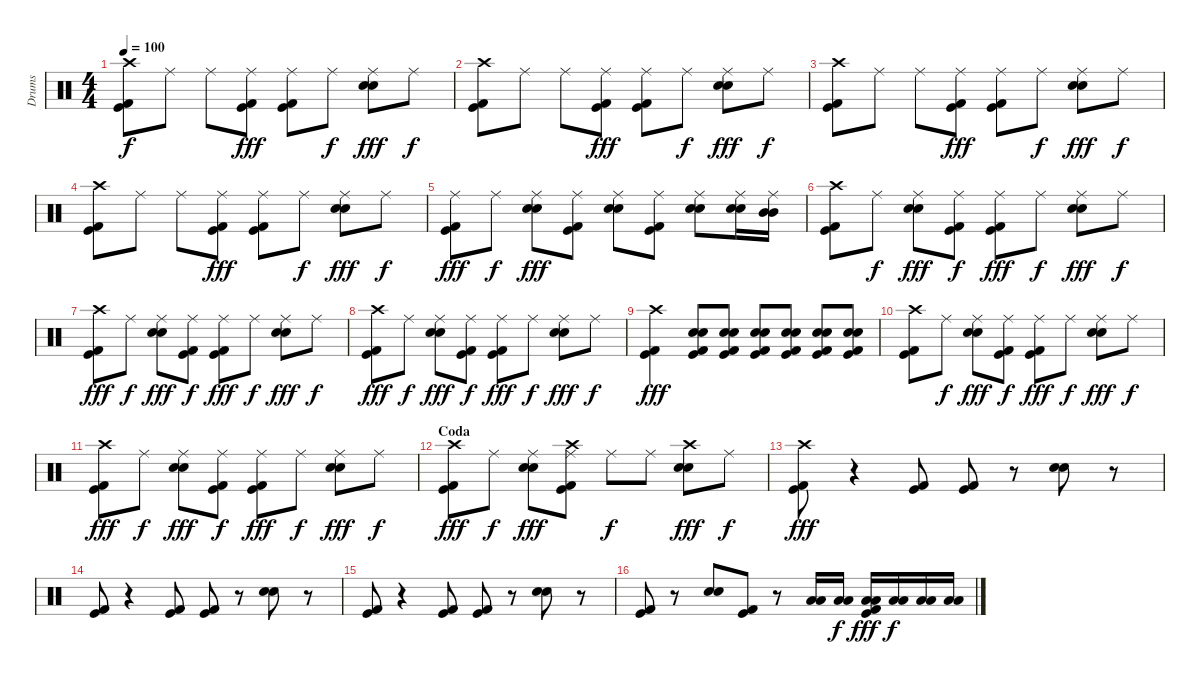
\track ("Drums" "Drums") {instrument percussion}
\staff {score}
\articulation defaults
\ts (4 4)
\tempo 100
\clef neutral
\ks c
("Crash high (hit)" "Kick (hit) 2" "Kick (hit)").8{dy f} "Ride (middle)".8 "Ride (middle)".8 ("Ride (middle)" "Kick (hit) 2" "Kick (hit)").8{dy fff} ("Ride (middle)" "Kick (hit) 2" "Kick (hit)").8 "Ride (middle)".8{dy f} ("Ride (middle)" "Electric Snare (hit)" "Snare (hit) 2").8{dy fff} "Ride (middle)".8{dy f} |
("Crash high (hit)" "Kick (hit) 2" "Kick (hit)").8 "Ride (middle)".8 "Ride (middle)".8 ("Ride (middle)" "Kick (hit) 2" "Kick (hit)").8{dy fff} ("Ride (middle)" "Kick (hit) 2" "Kick (hit)").8 "Ride (middle)".8{dy f} ("Ride (middle)" "Electric Snare (hit)" "Snare (hit) 2").8{dy fff} "Ride (middle)".8{dy f} |
("Crash high (hit)" "Kick (hit) 2" "Kick (hit)").8 "Ride (middle)".8 "Ride (middle)".8 ("Ride (middle)" "Kick (hit) 2" "Kick (hit)").8{dy fff} ("Ride (middle)" "Kick (hit) 2" "Kick (hit)").8 "Ride (middle)".8{dy f} ("Ride (middle)" "Electric Snare (hit)" "Snare (hit) 2").8{dy fff} "Ride (middle)".8{dy f} |
("Crash high (hit)" "Kick (hit) 2" "Kick (hit)").8 "Ride (middle)".8 "Ride (middle)".8 ("Ride (middle)" "Kick (hit) 2" "Kick (hit)").8{dy fff} ("Ride (middle)" "Kick (hit) 2" "Kick (hit)").8 "Ride (middle)".8{dy f} ("Ride (middle)" "Electric Snare (hit)" "Snare (hit) 2").8{dy fff} "Ride (middle)".8{dy f} |
("Ride (middle)" "Kick (hit) 2" "Kick (hit)").8{dy fff} "Ride (middle)".8{dy f} ("Ride (middle)" "Electric Snare (hit)" "Snare (hit) 2").8{dy fff} ("Ride (middle)" "Kick (hit) 2" "Kick (hit)").8 ("Ride (middle)" "Electric Snare (hit)" "Electric Snare (hit)").8 ("Ride (middle)" "Kick (hit) 2" "Kick (hit)").8 ("Ride (middle)" "Electric Snare (hit)" "Snare (hit) 2").8 ("Ride (middle)" "Electric Snare (hit)" "Snare (hit) 2").16 ("Ride (middle)" "Mid Tom (hit)" "Mid Tom (hit)").16 |
("Crash high (hit)" "Kick (hit) 2" "Kick (hit)").8 "Ride (middle)".8{dy f} ("Ride (middle)" "Electric Snare (hit)" "Snare (hit) 2").8{dy fff} ("Ride (middle)" "Kick (hit) 2" "Kick (hit)").8{dy f} ("Ride (middle)" "Kick (hit) 2" "Kick (hit)").8{dy fff} "Ride (middle)".8{dy f} ("Ride (middle)" "Electric Snare (hit)" "Snare (hit) 2").8{dy fff} "Ride (middle)".8{dy f} |
("Crash high (hit)" "Kick (hit) 2" "Kick (hit)").8{dy fff} "Ride (middle)".8{dy f} ("Ride (middle)" "Electric Snare (hit)" "Snare (hit) 2").8{dy fff} ("Ride (middle)" "Kick (hit) 2" "Kick (hit)").8{dy f} ("Ride (middle)" "Kick (hit) 2" "Kick (hit)").8{dy fff} "Ride (middle)".8{dy f} ("Ride (middle)" "Electric Snare (hit)" "Snare (hit) 2").8{dy fff} "Ride (middle)".8{dy f} |
("Crash high (hit)" "Kick (hit) 2" "Kick (hit)").8{dy fff} "Ride (middle)".8{dy f} ("Ride (middle)" "Electric Snare (hit)" "Snare (hit) 2").8{dy fff} ("Ride (middle)" "Kick (hit) 2" "Kick (hit)").8{dy f} ("Ride (middle)" "Kick (hit) 2" "Kick (hit)").8{dy fff} "Ride (middle)".8{dy f} ("Ride (middle)" "Electric Snare (hit)" "Snare (hit) 2").8{dy fff} "Ride (middle)".8{dy f} |
("Crash high (hit)" "Kick (hit) 2" "Kick (hit)").4{dy fff} ("Electric Snare (hit)" "Snare (hit) 2" "Kick (hit) 2" "Kick (hit)").8 ("Electric Snare (hit)" "Snare (hit) 2" "Kick (hit) 2" "Kick (hit)").8 ("Electric Snare (hit)" "Snare (hit) 2" "Kick (hit) 2" "Kick (hit)").8 ("Electric Snare (hit)" "Snare (hit) 2" "Kick (hit) 2" "Kick (hit)").8 ("Electric Snare (hit)" "Snare (hit) 2" "Kick (hit) 2" "Kick (hit)").8 ("Electric Snare (hit)" "Snare (hit) 2" "Kick (hit) 2" "Kick (hit)").8 |
("Crash high (hit)" "Kick (hit) 2" "Kick (hit)").8 "Ride (middle)".8{dy f} ("Ride (middle)" "Electric Snare (hit)" "Snare (hit) 2").8{dy fff} ("Ride (middle)" "Kick (hit) 2" "Kick (hit)").8{dy f} ("Ride (middle)" "Kick (hit) 2" "Kick (hit)").8{dy fff} "Ride (middle)".8{dy f} ("Ride (middle)" "Electric Snare (hit)" "Snare (hit) 2").8{dy fff} "Ride (middle)".8{dy f} |
("Crash high (hit)" "Kick (hit) 2" "Kick (hit)").8{dy fff} "Ride (middle)".8{dy f} ("Ride (middle)" "Electric Snare (hit)" "Snare (hit) 2").8{dy fff} ("Ride (middle)" "Kick (hit) 2" "Kick (hit)").8{dy f} ("Ride (middle)" "Kick (hit) 2" "Kick (hit)").8{dy fff} "Ride (middle)".8{dy f} ("Ride (middle)" "Electric Snare (hit)" "Snare (hit) 2").8{dy fff} "Ride (middle)".8{dy f} |
\section ("" "Coda")
("Crash high (hit)" "Kick (hit) 2" "Kick (hit)").8{dy fff} "Ride (middle)".8{dy f} ("Ride (middle)" "Electric Snare (hit)" "Snare (hit) 2").8{dy fff} ("Ride (middle)" "Crash high (hit)" "Kick (hit) 2" "Kick (hit)").8 "Ride (middle)".8{dy f} "Ride (middle)".8 ("Crash high (hit)" "Electric Snare (hit)" "Snare (hit) 2").8{dy fff} "Ride (middle)".8{dy f} |
("Crash high (hit)" "Kick (hit) 2" "Kick (hit)").8{dy fff} r.4 ("Kick (hit) 2" "Kick (hit)").8 ("Kick (hit) 2" "Kick (hit)").8 r.8 ("Electric Snare (hit)" "Electric Snare (hit)").8 r.8 |
("Kick (hit) 2" "Kick (hit)").8 r.4 ("Kick (hit) 2" "Kick (hit)").8 ("Kick (hit) 2" "Kick (hit)").8 r.8 ("Electric Snare (hit)" "Electric Snare (hit)").8 r.8 |
("Kick (hit) 2" "Kick (hit)").8 r.4 ("Kick (hit) 2" "Kick (hit)").8 ("Kick (hit) 2" "Kick (hit)").8 r.8 ("Electric Snare (hit)" "Electric Snare (hit)").8 r.8 |
("Kick (hit) 2" "Kick (hit)").8 r.8 ("Electric Snare (hit)" "Electric Snare (hit)").8 ("Kick (hit) 2" "Kick (hit)").8 r.8 ("Low Tom (hit)" "Low Tom (hit)").16 ("Low Tom (hit)" "Low Tom (hit)").16{dy f} ("Low Tom (hit)" "Low Tom (hit)" "Kick (hit) 2" "Kick (hit)").16{dy fff} ("Low Tom (hit)" "Low Tom (hit)").16{dy f} ("Low Tom (hit)" "Low Tom (hit)").16 ("Low Tom (hit)" "Low Tom (hit)").16
